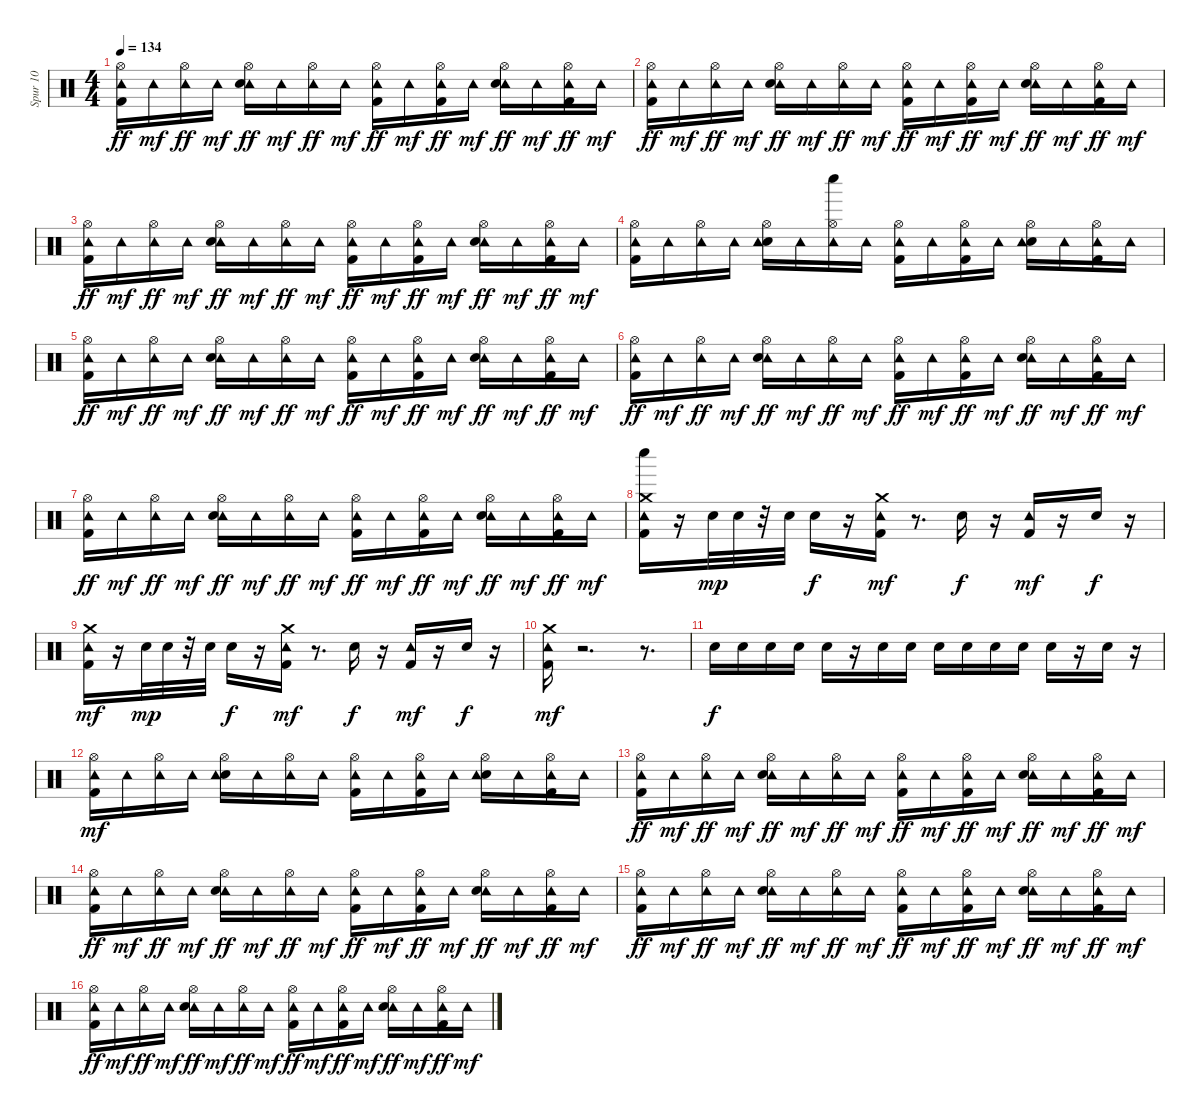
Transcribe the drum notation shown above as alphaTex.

\track ("Spur 10" "Spur 10") {instrument percussion}
\staff {score}
\articulation defaults
\ts (4 4)
\tempo 134
\clef neutral
\ks c
("Tambourine (hit)" "Kick (hit) 2" "Hi-Hat (open)").16{dy ff} "Tambourine (hit)".16{dy mf} ("Tambourine (hit)" "Hi-Hat (open)").16{dy ff} "Tambourine (hit)".16{dy mf} ("Tambourine (hit)" "Snare (hit) 2" "Hi-Hat (open)").16{dy ff} "Tambourine (hit)".16{dy mf} ("Tambourine (hit)" "Hi-Hat (open)").16{dy ff} "Tambourine (hit)".16{dy mf} ("Tambourine (hit)" "Kick (hit) 2" "Hi-Hat (open)").16{dy ff} "Tambourine (hit)".16{dy mf} ("Tambourine (hit)" "Kick (hit) 2" "Hi-Hat (open)").16{dy ff} "Tambourine (hit)".16{dy mf} ("Tambourine (hit)" "Snare (hit) 2" "Hi-Hat (open)").16{dy ff} "Tambourine (hit)".16{dy mf} ("Tambourine (hit)" "Kick (hit) 2" "Hi-Hat (open)").16{dy ff} "Tambourine (hit)".16{dy mf} |
("Tambourine (hit)" "Kick (hit) 2" "Hi-Hat (open)").16{dy ff} "Tambourine (hit)".16{dy mf} ("Tambourine (hit)" "Hi-Hat (open)").16{dy ff} "Tambourine (hit)".16{dy mf} ("Tambourine (hit)" "Snare (hit) 2" "Hi-Hat (open)").16{dy ff} "Tambourine (hit)".16{dy mf} ("Tambourine (hit)" "Hi-Hat (open)").16{dy ff} "Tambourine (hit)".16{dy mf} ("Tambourine (hit)" "Kick (hit) 2" "Hi-Hat (open)").16{dy ff} "Tambourine (hit)".16{dy mf} ("Tambourine (hit)" "Kick (hit) 2" "Hi-Hat (open)").16{dy ff} "Tambourine (hit)".16{dy mf} ("Tambourine (hit)" "Snare (hit) 2" "Hi-Hat (open)").16{dy ff} "Tambourine (hit)".16{dy mf} ("Tambourine (hit)" "Kick (hit) 2" "Hi-Hat (open)").16{dy ff} "Tambourine (hit)".16{dy mf} |
("Tambourine (hit)" "Kick (hit) 2" "Hi-Hat (open)").16{dy ff} "Tambourine (hit)".16{dy mf} ("Tambourine (hit)" "Hi-Hat (open)").16{dy ff} "Tambourine (hit)".16{dy mf} ("Tambourine (hit)" "Snare (hit) 2" "Hi-Hat (open)").16{dy ff} "Tambourine (hit)".16{dy mf} ("Tambourine (hit)" "Hi-Hat (open)").16{dy ff} "Tambourine (hit)".16{dy mf} ("Tambourine (hit)" "Kick (hit) 2" "Hi-Hat (open)").16{dy ff} "Tambourine (hit)".16{dy mf} ("Tambourine (hit)" "Kick (hit) 2" "Hi-Hat (open)").16{dy ff} "Tambourine (hit)".16{dy mf} ("Tambourine (hit)" "Snare (hit) 2" "Hi-Hat (open)").16{dy ff} "Tambourine (hit)".16{dy mf} ("Tambourine (hit)" "Kick (hit) 2" "Hi-Hat (open)").16{dy ff} "Tambourine (hit)".16{dy mf} |
("Hi-Hat (open)" "Kick (hit) 2" "Tambourine (hit)").16 "Tambourine (hit)".16 ("Hi-Hat (open)" "Tambourine (hit)").16 "Tambourine (hit)".16 ("Hi-Hat (open)" "Snare (hit) 2" "Tambourine (hit)").16 "Tambourine (hit)".16 ("Whistle low (hit)" "Hi-Hat (open)" "Tambourine (hit)").16 "Tambourine (hit)".16 ("Hi-Hat (open)" "Kick (hit) 2" "Tambourine (hit)").16 "Tambourine (hit)".16 ("Hi-Hat (open)" "Kick (hit) 2" "Tambourine (hit)").16 "Tambourine (hit)".16 ("Hi-Hat (open)" "Snare (hit) 2" "Tambourine (hit)").16 "Tambourine (hit)".16 ("Hi-Hat (open)" "Kick (hit) 2" "Tambourine (hit)").16 "Tambourine (hit)".16 |
("Tambourine (hit)" "Kick (hit) 2" "Hi-Hat (open)").16{dy ff} "Tambourine (hit)".16{dy mf} ("Tambourine (hit)" "Hi-Hat (open)").16{dy ff} "Tambourine (hit)".16{dy mf} ("Tambourine (hit)" "Snare (hit) 2" "Hi-Hat (open)").16{dy ff} "Tambourine (hit)".16{dy mf} ("Tambourine (hit)" "Hi-Hat (open)").16{dy ff} "Tambourine (hit)".16{dy mf} ("Tambourine (hit)" "Kick (hit) 2" "Hi-Hat (open)").16{dy ff} "Tambourine (hit)".16{dy mf} ("Tambourine (hit)" "Kick (hit) 2" "Hi-Hat (open)").16{dy ff} "Tambourine (hit)".16{dy mf} ("Tambourine (hit)" "Snare (hit) 2" "Hi-Hat (open)").16{dy ff} "Tambourine (hit)".16{dy mf} ("Tambourine (hit)" "Kick (hit) 2" "Hi-Hat (open)").16{dy ff} "Tambourine (hit)".16{dy mf} |
("Tambourine (hit)" "Kick (hit) 2" "Hi-Hat (open)").16{dy ff} "Tambourine (hit)".16{dy mf} ("Tambourine (hit)" "Hi-Hat (open)").16{dy ff} "Tambourine (hit)".16{dy mf} ("Tambourine (hit)" "Snare (hit) 2" "Hi-Hat (open)").16{dy ff} "Tambourine (hit)".16{dy mf} ("Tambourine (hit)" "Hi-Hat (open)").16{dy ff} "Tambourine (hit)".16{dy mf} ("Tambourine (hit)" "Kick (hit) 2" "Hi-Hat (open)").16{dy ff} "Tambourine (hit)".16{dy mf} ("Tambourine (hit)" "Kick (hit) 2" "Hi-Hat (open)").16{dy ff} "Tambourine (hit)".16{dy mf} ("Tambourine (hit)" "Snare (hit) 2" "Hi-Hat (open)").16{dy ff} "Tambourine (hit)".16{dy mf} ("Tambourine (hit)" "Kick (hit) 2" "Hi-Hat (open)").16{dy ff} "Tambourine (hit)".16{dy mf} |
("Tambourine (hit)" "Kick (hit) 2" "Hi-Hat (open)").16{dy ff} "Tambourine (hit)".16{dy mf} ("Tambourine (hit)" "Hi-Hat (open)").16{dy ff} "Tambourine (hit)".16{dy mf} ("Tambourine (hit)" "Snare (hit) 2" "Hi-Hat (open)").16{dy ff} "Tambourine (hit)".16{dy mf} ("Tambourine (hit)" "Hi-Hat (open)").16{dy ff} "Tambourine (hit)".16{dy mf} ("Tambourine (hit)" "Kick (hit) 2" "Hi-Hat (open)").16{dy ff} "Tambourine (hit)".16{dy mf} ("Tambourine (hit)" "Kick (hit) 2" "Hi-Hat (open)").16{dy ff} "Tambourine (hit)".16{dy mf} ("Tambourine (hit)" "Snare (hit) 2" "Hi-Hat (open)").16{dy ff} "Tambourine (hit)".16{dy mf} ("Tambourine (hit)" "Kick (hit) 2" "Hi-Hat (open)").16{dy ff} "Tambourine (hit)".16{dy mf} |
("Whistle low (hit)" "Tambourine (hit)" "Crash medium (hit)" "Kick (hit) 2").16 r.16 "Snare (hit) 2".32{dy mp} "Snare (hit) 2".32 r.32 "Snare (hit) 2".32 "Snare (hit) 2".16{dy f} r.16 ("Tambourine (hit)" "Crash medium (hit)" "Kick (hit) 2").16{dy mf} r.8{d} "Snare (hit) 2".16{dy f} r.16 ("Tambourine (hit)" "Kick (hit) 2").16{dy mf} r.16 "Snare (hit) 2".16{dy f} r.16 |
("Tambourine (hit)" "Kick (hit) 2" "Crash medium (hit)").16{dy mf} r.16 "Snare (hit) 2".32{dy mp} "Snare (hit) 2".32 r.32 "Snare (hit) 2".32 "Snare (hit) 2".16{dy f} r.16 ("Tambourine (hit)" "Kick (hit) 2" "Crash medium (hit)").16{dy mf} r.8{d} "Snare (hit) 2".16{dy f} r.16 ("Tambourine (hit)" "Kick (hit) 2").16{dy mf} r.16 "Snare (hit) 2".16{dy f} r.16 |
("Tambourine (hit)" "Crash medium (hit)" "Kick (hit) 2").16{dy mf} r.2{d} r.8{d} |
"Snare (hit) 2".16{dy f} "Snare (hit) 2".16 "Snare (hit) 2".16 "Snare (hit) 2".16 "Snare (hit) 2".16 r.16 "Snare (hit) 2".16 "Snare (hit) 2".16 "Snare (hit) 2".16 "Snare (hit) 2".16 "Snare (hit) 2".16 "Snare (hit) 2".16 "Snare (hit) 2".16 r.16 "Snare (hit) 2".16 r.16 |
("Hi-Hat (open)" "Kick (hit) 2" "Tambourine (hit)").16{dy mf} "Tambourine (hit)".16 ("Hi-Hat (open)" "Tambourine (hit)").16 "Tambourine (hit)".16 ("Hi-Hat (open)" "Snare (hit) 2" "Tambourine (hit)").16 "Tambourine (hit)".16 ("Hi-Hat (open)" "Tambourine (hit)").16 "Tambourine (hit)".16 ("Hi-Hat (open)" "Kick (hit) 2" "Tambourine (hit)").16 "Tambourine (hit)".16 ("Hi-Hat (open)" "Kick (hit) 2" "Tambourine (hit)").16 "Tambourine (hit)".16 ("Hi-Hat (open)" "Snare (hit) 2" "Tambourine (hit)").16 "Tambourine (hit)".16 ("Hi-Hat (open)" "Kick (hit) 2" "Tambourine (hit)").16 "Tambourine (hit)".16 |
("Tambourine (hit)" "Kick (hit) 2" "Hi-Hat (open)").16{dy ff} "Tambourine (hit)".16{dy mf} ("Tambourine (hit)" "Hi-Hat (open)").16{dy ff} "Tambourine (hit)".16{dy mf} ("Tambourine (hit)" "Snare (hit) 2" "Hi-Hat (open)").16{dy ff} "Tambourine (hit)".16{dy mf} ("Tambourine (hit)" "Hi-Hat (open)").16{dy ff} "Tambourine (hit)".16{dy mf} ("Tambourine (hit)" "Kick (hit) 2" "Hi-Hat (open)").16{dy ff} "Tambourine (hit)".16{dy mf} ("Tambourine (hit)" "Kick (hit) 2" "Hi-Hat (open)").16{dy ff} "Tambourine (hit)".16{dy mf} ("Tambourine (hit)" "Snare (hit) 2" "Hi-Hat (open)").16{dy ff} "Tambourine (hit)".16{dy mf} ("Tambourine (hit)" "Kick (hit) 2" "Hi-Hat (open)").16{dy ff} "Tambourine (hit)".16{dy mf} |
("Tambourine (hit)" "Kick (hit) 2" "Hi-Hat (open)").16{dy ff} "Tambourine (hit)".16{dy mf} ("Tambourine (hit)" "Hi-Hat (open)").16{dy ff} "Tambourine (hit)".16{dy mf} ("Tambourine (hit)" "Snare (hit) 2" "Hi-Hat (open)").16{dy ff} "Tambourine (hit)".16{dy mf} ("Tambourine (hit)" "Hi-Hat (open)").16{dy ff} "Tambourine (hit)".16{dy mf} ("Tambourine (hit)" "Kick (hit) 2" "Hi-Hat (open)").16{dy ff} "Tambourine (hit)".16{dy mf} ("Tambourine (hit)" "Kick (hit) 2" "Hi-Hat (open)").16{dy ff} "Tambourine (hit)".16{dy mf} ("Tambourine (hit)" "Snare (hit) 2" "Hi-Hat (open)").16{dy ff} "Tambourine (hit)".16{dy mf} ("Tambourine (hit)" "Kick (hit) 2" "Hi-Hat (open)").16{dy ff} "Tambourine (hit)".16{dy mf} |
("Tambourine (hit)" "Kick (hit) 2" "Hi-Hat (open)").16{dy ff} "Tambourine (hit)".16{dy mf} ("Tambourine (hit)" "Hi-Hat (open)").16{dy ff} "Tambourine (hit)".16{dy mf} ("Tambourine (hit)" "Snare (hit) 2" "Hi-Hat (open)").16{dy ff} "Tambourine (hit)".16{dy mf} ("Tambourine (hit)" "Hi-Hat (open)").16{dy ff} "Tambourine (hit)".16{dy mf} ("Tambourine (hit)" "Kick (hit) 2" "Hi-Hat (open)").16{dy ff} "Tambourine (hit)".16{dy mf} ("Tambourine (hit)" "Kick (hit) 2" "Hi-Hat (open)").16{dy ff} "Tambourine (hit)".16{dy mf} ("Tambourine (hit)" "Snare (hit) 2" "Hi-Hat (open)").16{dy ff} "Tambourine (hit)".16{dy mf} ("Tambourine (hit)" "Kick (hit) 2" "Hi-Hat (open)").16{dy ff} "Tambourine (hit)".16{dy mf} |
("Tambourine (hit)" "Kick (hit) 2" "Hi-Hat (open)").16{dy ff} "Tambourine (hit)".16{dy mf} ("Tambourine (hit)" "Hi-Hat (open)").16{dy ff} "Tambourine (hit)".16{dy mf} ("Tambourine (hit)" "Snare (hit) 2" "Hi-Hat (open)").16{dy ff} "Tambourine (hit)".16{dy mf} ("Tambourine (hit)" "Hi-Hat (open)").16{dy ff} "Tambourine (hit)".16{dy mf} ("Tambourine (hit)" "Kick (hit) 2" "Hi-Hat (open)").16{dy ff} "Tambourine (hit)".16{dy mf} ("Tambourine (hit)" "Kick (hit) 2" "Hi-Hat (open)").16{dy ff} "Tambourine (hit)".16{dy mf} ("Tambourine (hit)" "Snare (hit) 2" "Hi-Hat (open)").16{dy ff} "Tambourine (hit)".16{dy mf} ("Tambourine (hit)" "Kick (hit) 2" "Hi-Hat (open)").16{dy ff} "Tambourine (hit)".16{dy mf}
